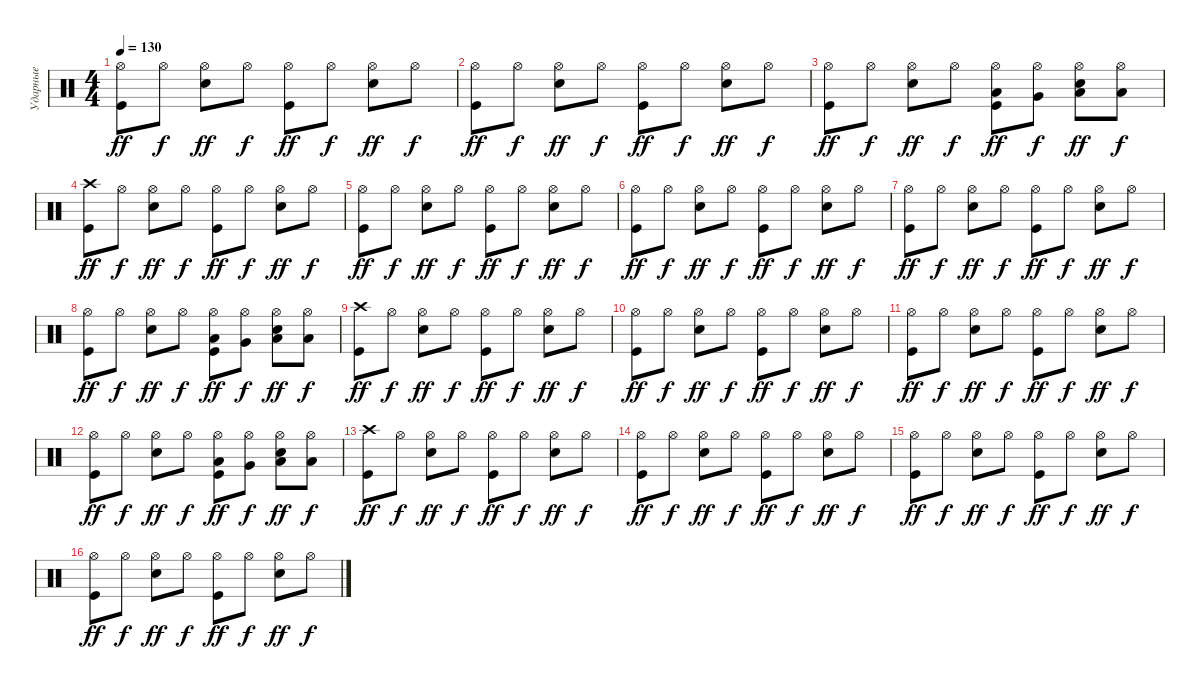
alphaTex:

\track ("Ударные" "Ударные") {instrument percussion}
\staff {score}
\articulation defaults
\ts (4 4)
\tempo 130
\clef neutral
\ks c
("Kick (hit)" "Hi-Hat (open)").8{dy ff} "Hi-Hat (open)".8{dy f} ("Electric Snare (hit)" "Hi-Hat (open)").8{dy ff} "Hi-Hat (open)".8{dy f} ("Kick (hit)" "Hi-Hat (open)").8{dy ff} "Hi-Hat (open)".8{dy f} ("Electric Snare (hit)" "Hi-Hat (open)").8{dy ff} "Hi-Hat (open)".8{dy f} |
("Kick (hit)" "Hi-Hat (open)").8{dy ff} "Hi-Hat (open)".8{dy f} ("Electric Snare (hit)" "Hi-Hat (open)").8{dy ff} "Hi-Hat (open)".8{dy f} ("Kick (hit)" "Hi-Hat (open)").8{dy ff} "Hi-Hat (open)".8{dy f} ("Electric Snare (hit)" "Hi-Hat (open)").8{dy ff} "Hi-Hat (open)".8{dy f} |
("Kick (hit)" "Hi-Hat (open)").8{dy ff} "Hi-Hat (open)".8{dy f} ("Electric Snare (hit)" "Hi-Hat (open)").8{dy ff} "Hi-Hat (open)".8{dy f} ("Kick (hit)" "Hi-Hat (open)" "Low Tom (hit)").8{dy ff} ("Hi-Hat (open)" "Very Low Tom (hit)").8{dy f} ("Electric Snare (hit)" "Hi-Hat (open)" "Low Tom (hit)").8{dy ff} ("Hi-Hat (open)" "Low Floor Tom (hit)").8{dy f} |
("Kick (hit)" "Crash high (hit)").8{dy ff} "Hi-Hat (open)".8{dy f} ("Electric Snare (hit)" "Hi-Hat (open)").8{dy ff} "Hi-Hat (open)".8{dy f} ("Kick (hit)" "Hi-Hat (open)").8{dy ff} "Hi-Hat (open)".8{dy f} ("Electric Snare (hit)" "Hi-Hat (open)").8{dy ff} "Hi-Hat (open)".8{dy f} |
("Kick (hit)" "Hi-Hat (open)").8{dy ff} "Hi-Hat (open)".8{dy f} ("Electric Snare (hit)" "Hi-Hat (open)").8{dy ff} "Hi-Hat (open)".8{dy f} ("Kick (hit)" "Hi-Hat (open)").8{dy ff} "Hi-Hat (open)".8{dy f} ("Electric Snare (hit)" "Hi-Hat (open)").8{dy ff} "Hi-Hat (open)".8{dy f} |
("Kick (hit)" "Hi-Hat (open)").8{dy ff} "Hi-Hat (open)".8{dy f} ("Electric Snare (hit)" "Hi-Hat (open)").8{dy ff} "Hi-Hat (open)".8{dy f} ("Kick (hit)" "Hi-Hat (open)").8{dy ff} "Hi-Hat (open)".8{dy f} ("Electric Snare (hit)" "Hi-Hat (open)").8{dy ff} "Hi-Hat (open)".8{dy f} |
("Kick (hit)" "Hi-Hat (open)").8{dy ff} "Hi-Hat (open)".8{dy f} ("Electric Snare (hit)" "Hi-Hat (open)").8{dy ff} "Hi-Hat (open)".8{dy f} ("Kick (hit)" "Hi-Hat (open)").8{dy ff} "Hi-Hat (open)".8{dy f} ("Electric Snare (hit)" "Hi-Hat (open)").8{dy ff} "Hi-Hat (open)".8{dy f} |
("Kick (hit)" "Hi-Hat (open)").8{dy ff} "Hi-Hat (open)".8{dy f} ("Electric Snare (hit)" "Hi-Hat (open)").8{dy ff} "Hi-Hat (open)".8{dy f} ("Kick (hit)" "Hi-Hat (open)" "Low Tom (hit)").8{dy ff} ("Hi-Hat (open)" "Very Low Tom (hit)").8{dy f} ("Electric Snare (hit)" "Hi-Hat (open)" "Low Tom (hit)").8{dy ff} ("Hi-Hat (open)" "Low Floor Tom (hit)").8{dy f} |
("Kick (hit)" "Crash high (hit)").8{dy ff} "Hi-Hat (open)".8{dy f} ("Electric Snare (hit)" "Hi-Hat (open)").8{dy ff} "Hi-Hat (open)".8{dy f} ("Kick (hit)" "Hi-Hat (open)").8{dy ff} "Hi-Hat (open)".8{dy f} ("Electric Snare (hit)" "Hi-Hat (open)").8{dy ff} "Hi-Hat (open)".8{dy f} |
("Kick (hit)" "Hi-Hat (open)").8{dy ff} "Hi-Hat (open)".8{dy f} ("Electric Snare (hit)" "Hi-Hat (open)").8{dy ff} "Hi-Hat (open)".8{dy f} ("Kick (hit)" "Hi-Hat (open)").8{dy ff} "Hi-Hat (open)".8{dy f} ("Electric Snare (hit)" "Hi-Hat (open)").8{dy ff} "Hi-Hat (open)".8{dy f} |
("Kick (hit)" "Hi-Hat (open)").8{dy ff} "Hi-Hat (open)".8{dy f} ("Electric Snare (hit)" "Hi-Hat (open)").8{dy ff} "Hi-Hat (open)".8{dy f} ("Kick (hit)" "Hi-Hat (open)").8{dy ff} "Hi-Hat (open)".8{dy f} ("Electric Snare (hit)" "Hi-Hat (open)").8{dy ff} "Hi-Hat (open)".8{dy f} |
("Kick (hit)" "Hi-Hat (open)").8{dy ff} "Hi-Hat (open)".8{dy f} ("Electric Snare (hit)" "Hi-Hat (open)").8{dy ff} "Hi-Hat (open)".8{dy f} ("Kick (hit)" "Hi-Hat (open)" "Low Tom (hit)").8{dy ff} ("Hi-Hat (open)" "Very Low Tom (hit)").8{dy f} ("Electric Snare (hit)" "Hi-Hat (open)" "Low Tom (hit)").8{dy ff} ("Hi-Hat (open)" "Low Floor Tom (hit)").8{dy f} |
("Kick (hit)" "Crash high (hit)").8{dy ff} "Hi-Hat (open)".8{dy f} ("Electric Snare (hit)" "Hi-Hat (open)").8{dy ff} "Hi-Hat (open)".8{dy f} ("Kick (hit)" "Hi-Hat (open)").8{dy ff} "Hi-Hat (open)".8{dy f} ("Electric Snare (hit)" "Hi-Hat (open)").8{dy ff} "Hi-Hat (open)".8{dy f} |
("Kick (hit)" "Hi-Hat (open)").8{dy ff} "Hi-Hat (open)".8{dy f} ("Electric Snare (hit)" "Hi-Hat (open)").8{dy ff} "Hi-Hat (open)".8{dy f} ("Kick (hit)" "Hi-Hat (open)").8{dy ff} "Hi-Hat (open)".8{dy f} ("Electric Snare (hit)" "Hi-Hat (open)").8{dy ff} "Hi-Hat (open)".8{dy f} |
("Kick (hit)" "Hi-Hat (open)").8{dy ff} "Hi-Hat (open)".8{dy f} ("Electric Snare (hit)" "Hi-Hat (open)").8{dy ff} "Hi-Hat (open)".8{dy f} ("Kick (hit)" "Hi-Hat (open)").8{dy ff} "Hi-Hat (open)".8{dy f} ("Electric Snare (hit)" "Hi-Hat (open)").8{dy ff} "Hi-Hat (open)".8{dy f} |
("Kick (hit)" "Hi-Hat (open)").8{dy ff} "Hi-Hat (open)".8{dy f} ("Electric Snare (hit)" "Hi-Hat (open)").8{dy ff} "Hi-Hat (open)".8{dy f} ("Kick (hit)" "Hi-Hat (open)").8{dy ff} "Hi-Hat (open)".8{dy f} ("Electric Snare (hit)" "Hi-Hat (open)").8{dy ff} "Hi-Hat (open)".8{dy f}
